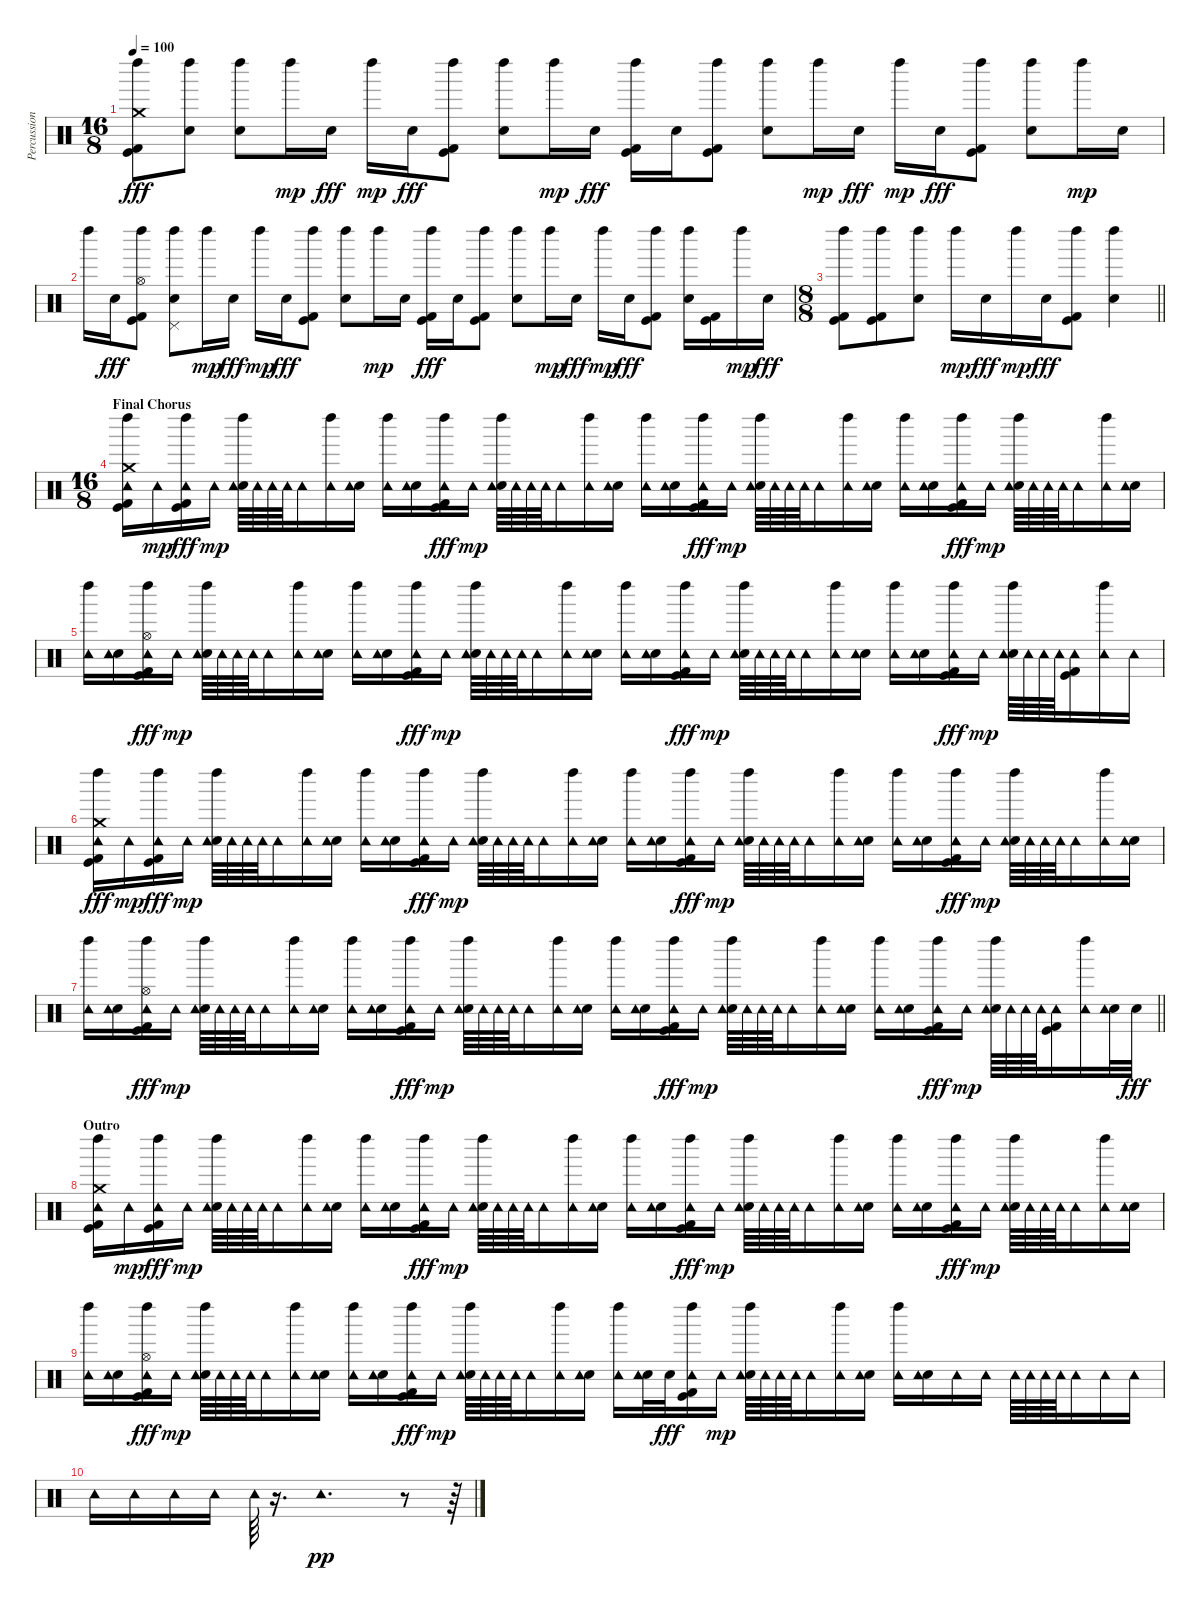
\track ("Percussion" "Percussion") {instrument percussion}
\staff {score}
\articulation defaults
\ts (16 8)
\tempo 100
\clef neutral
\ks c
("Crash medium (hit)" "Left Maraca (hit)" "Kick (hit)" "Kick (hit) 2").8{dy fff} ("Left Maraca (hit)" "Snare (hit) 2").8 ("Left Maraca (hit)" "Snare (hit) 2").8 "Left Maraca (hit)".16{dy mp} "Snare (hit) 2".16{dy fff} "Left Maraca (hit)".16{dy mp} "Snare (hit) 2".16{dy fff} ("Left Maraca (hit)" "Kick (hit)" "Kick (hit) 2").8 ("Left Maraca (hit)" "Snare (hit) 2").8 "Left Maraca (hit)".16{dy mp} "Snare (hit) 2".16{dy fff} ("Left Maraca (hit)" "Kick (hit)" "Kick (hit) 2").16 "Snare (hit) 2".16 ("Left Maraca (hit)" "Kick (hit)" "Kick (hit) 2").8 ("Left Maraca (hit)" "Snare (hit) 2").8 "Left Maraca (hit)".16{dy mp} "Snare (hit) 2".16{dy fff} "Left Maraca (hit)".16{dy mp} "Snare (hit) 2".16{dy fff} ("Left Maraca (hit)" "Kick (hit)" "Kick (hit) 2").8 ("Left Maraca (hit)" "Snare (hit) 2").8 "Left Maraca (hit)".16{dy mp} "Snare (hit) 2".16 |
"Left Maraca (hit)".16 "Snare (hit) 2".16{dy fff} ("Hi-Hat (open)" "Left Maraca (hit)" "Kick (hit)" "Kick (hit) 2").8 ("Pedal Hi-Hat (hit)" "Left Maraca (hit)" "Snare (hit) 2").8 "Left Maraca (hit)".16{dy mp} "Snare (hit) 2".16{dy fff} "Left Maraca (hit)".16{dy mp} "Snare (hit) 2".16{dy fff} ("Left Maraca (hit)" "Kick (hit)" "Kick (hit) 2").8 ("Left Maraca (hit)" "Snare (hit) 2").8 "Left Maraca (hit)".16{dy mp} "Snare (hit) 2".16 ("Left Maraca (hit)" "Kick (hit)" "Kick (hit) 2").16{dy fff} "Snare (hit) 2".16 ("Left Maraca (hit)" "Kick (hit)" "Kick (hit) 2").8 ("Left Maraca (hit)" "Snare (hit) 2").8 "Left Maraca (hit)".16{dy mp} "Snare (hit) 2".16{dy fff} "Left Maraca (hit)".16{dy mp} "Snare (hit) 2".16{dy fff} ("Left Maraca (hit)" "Kick (hit)" "Kick (hit) 2").8 ("Left Maraca (hit)" "Snare (hit) 2").16 ("Kick (hit)" "Kick (hit) 2").16 "Left Maraca (hit)".16{dy mp} "Snare (hit) 2".16{dy fff} |
\ts (8 8)
\barLineRight lightlight
("Left Maraca (hit)" "Kick (hit)" "Kick (hit) 2").8 ("Left Maraca (hit)" "Kick (hit)" "Kick (hit) 2").8 ("Left Maraca (hit)" "Snare (hit) 2").8 "Left Maraca (hit)".16{dy mp} "Snare (hit) 2".16{dy fff} "Left Maraca (hit)".16{dy mp} "Snare (hit) 2".16{dy fff} ("Left Maraca (hit)" "Kick (hit)" "Kick (hit) 2").8 ("Left Maraca (hit)" "Snare (hit) 2").4 |
\ts (16 8)
\section ("" "Final Chorus")
("Crash medium (hit)" "Left Maraca (hit)" "Tambourine (hit)" "Kick (hit)" "Kick (hit) 2").16 "Tambourine (hit)".16{dy mp} ("Left Maraca (hit)" "Tambourine (hit)" "Kick (hit)" "Kick (hit) 2").16{dy fff} "Tambourine (hit)".16{dy mp} ("Left Maraca (hit)" "Snare (hit) 2" "Tambourine (hit)").64 "Tambourine (hit)".64 "Tambourine (hit)".64 "Tambourine (hit)".64 "Tambourine (hit)".16 ("Left Maraca (hit)" "Tambourine (hit)").16 ("Snare (hit) 2" "Tambourine (hit)").16 ("Left Maraca (hit)" "Tambourine (hit)").16 ("Snare (hit) 2" "Tambourine (hit)").16 ("Left Maraca (hit)" "Tambourine (hit)" "Kick (hit)" "Kick (hit) 2").16{dy fff} "Tambourine (hit)".16{dy mp} ("Left Maraca (hit)" "Snare (hit) 2" "Tambourine (hit)").64 "Tambourine (hit)".64 "Tambourine (hit)".64 "Tambourine (hit)".64 "Tambourine (hit)".16 ("Left Maraca (hit)" "Tambourine (hit)").16 ("Snare (hit) 2" "Tambourine (hit)").16 ("Left Maraca (hit)" "Tambourine (hit)").16 ("Snare (hit) 2" "Tambourine (hit)").16 ("Left Maraca (hit)" "Tambourine (hit)" "Kick (hit)" "Kick (hit) 2").16{dy fff} "Tambourine (hit)".16{dy mp} ("Left Maraca (hit)" "Snare (hit) 2" "Tambourine (hit)").64 "Tambourine (hit)".64 "Tambourine (hit)".64 "Tambourine (hit)".64 "Tambourine (hit)".16 ("Left Maraca (hit)" "Tambourine (hit)").16 ("Snare (hit) 2" "Tambourine (hit)").16 ("Left Maraca (hit)" "Tambourine (hit)").16 ("Snare (hit) 2" "Tambourine (hit)").16 ("Left Maraca (hit)" "Tambourine (hit)" "Kick (hit)" "Kick (hit) 2").16{dy fff} "Tambourine (hit)".16{dy mp} ("Left Maraca (hit)" "Snare (hit) 2" "Tambourine (hit)").64 "Tambourine (hit)".64 "Tambourine (hit)".64 "Tambourine (hit)".64 "Tambourine (hit)".16 ("Left Maraca (hit)" "Tambourine (hit)").16 ("Snare (hit) 2" "Tambourine (hit)").16 |
("Left Maraca (hit)" "Tambourine (hit)").16 ("Snare (hit) 2" "Tambourine (hit)").16 ("Hi-Hat (open)" "Left Maraca (hit)" "Tambourine (hit)" "Kick (hit)" "Kick (hit) 2").16{dy fff} "Tambourine (hit)".16{dy mp} ("Left Maraca (hit)" "Snare (hit) 2" "Tambourine (hit)").64 "Tambourine (hit)".64 "Tambourine (hit)".64 "Tambourine (hit)".64 "Tambourine (hit)".16 ("Left Maraca (hit)" "Tambourine (hit)").16 ("Snare (hit) 2" "Tambourine (hit)").16 ("Left Maraca (hit)" "Tambourine (hit)").16 ("Snare (hit) 2" "Tambourine (hit)").16 ("Left Maraca (hit)" "Tambourine (hit)" "Kick (hit)" "Kick (hit) 2").16{dy fff} "Tambourine (hit)".16{dy mp} ("Left Maraca (hit)" "Snare (hit) 2" "Tambourine (hit)").64 "Tambourine (hit)".64 "Tambourine (hit)".64 "Tambourine (hit)".64 "Tambourine (hit)".16 ("Left Maraca (hit)" "Tambourine (hit)").16 ("Snare (hit) 2" "Tambourine (hit)").16 ("Left Maraca (hit)" "Tambourine (hit)").16 ("Snare (hit) 2" "Tambourine (hit)").16 ("Left Maraca (hit)" "Tambourine (hit)" "Kick (hit)" "Kick (hit) 2").16{dy fff} "Tambourine (hit)".16{dy mp} ("Left Maraca (hit)" "Snare (hit) 2" "Tambourine (hit)").64 "Tambourine (hit)".64 "Tambourine (hit)".64 "Tambourine (hit)".64 "Tambourine (hit)".16 ("Left Maraca (hit)" "Tambourine (hit)").16 ("Snare (hit) 2" "Tambourine (hit)").16 ("Left Maraca (hit)" "Tambourine (hit)").16 ("Snare (hit) 2" "Tambourine (hit)").16 ("Left Maraca (hit)" "Tambourine (hit)" "Kick (hit)" "Kick (hit) 2").16{dy fff} "Tambourine (hit)".16{dy mp} ("Left Maraca (hit)" "Snare (hit) 2" "Tambourine (hit)").64 "Tambourine (hit)".64 "Tambourine (hit)".64 "Tambourine (hit)".64 ("Tambourine (hit)" "Kick (hit)" "Kick (hit) 2").16 ("Left Maraca (hit)" "Tambourine (hit)").16 "Tambourine (hit)".16 |
("Crash medium (hit)" "Left Maraca (hit)" "Tambourine (hit)" "Kick (hit)" "Kick (hit) 2").16{dy fff} "Tambourine (hit)".16{dy mp} ("Left Maraca (hit)" "Tambourine (hit)" "Kick (hit)" "Kick (hit) 2").16{dy fff} "Tambourine (hit)".16{dy mp} ("Left Maraca (hit)" "Snare (hit) 2" "Tambourine (hit)").64 "Tambourine (hit)".64 "Tambourine (hit)".64 "Tambourine (hit)".64 "Tambourine (hit)".16 ("Left Maraca (hit)" "Tambourine (hit)").16 ("Snare (hit) 2" "Tambourine (hit)").16 ("Left Maraca (hit)" "Tambourine (hit)").16 ("Snare (hit) 2" "Tambourine (hit)").16 ("Left Maraca (hit)" "Tambourine (hit)" "Kick (hit)" "Kick (hit) 2").16{dy fff} "Tambourine (hit)".16{dy mp} ("Left Maraca (hit)" "Snare (hit) 2" "Tambourine (hit)").64 "Tambourine (hit)".64 "Tambourine (hit)".64 "Tambourine (hit)".64 "Tambourine (hit)".16 ("Left Maraca (hit)" "Tambourine (hit)").16 ("Snare (hit) 2" "Tambourine (hit)").16 ("Left Maraca (hit)" "Tambourine (hit)").16 ("Snare (hit) 2" "Tambourine (hit)").16 ("Left Maraca (hit)" "Tambourine (hit)" "Kick (hit)" "Kick (hit) 2").16{dy fff} "Tambourine (hit)".16{dy mp} ("Left Maraca (hit)" "Snare (hit) 2" "Tambourine (hit)").64 "Tambourine (hit)".64 "Tambourine (hit)".64 "Tambourine (hit)".64 "Tambourine (hit)".16 ("Left Maraca (hit)" "Tambourine (hit)").16 ("Snare (hit) 2" "Tambourine (hit)").16 ("Left Maraca (hit)" "Tambourine (hit)").16 ("Snare (hit) 2" "Tambourine (hit)").16 ("Left Maraca (hit)" "Tambourine (hit)" "Kick (hit)" "Kick (hit) 2").16{dy fff} "Tambourine (hit)".16{dy mp} ("Left Maraca (hit)" "Snare (hit) 2" "Tambourine (hit)").64 "Tambourine (hit)".64 "Tambourine (hit)".64 "Tambourine (hit)".64 "Tambourine (hit)".16 ("Left Maraca (hit)" "Tambourine (hit)").16 ("Snare (hit) 2" "Tambourine (hit)").16 |
\barLineRight lightlight
("Left Maraca (hit)" "Tambourine (hit)").16 ("Snare (hit) 2" "Tambourine (hit)").16 ("Hi-Hat (open)" "Left Maraca (hit)" "Tambourine (hit)" "Kick (hit)" "Kick (hit) 2").16{dy fff} "Tambourine (hit)".16{dy mp} ("Left Maraca (hit)" "Snare (hit) 2" "Tambourine (hit)").64 "Tambourine (hit)".64 "Tambourine (hit)".64 "Tambourine (hit)".64 "Tambourine (hit)".16 ("Left Maraca (hit)" "Tambourine (hit)").16 ("Snare (hit) 2" "Tambourine (hit)").16 ("Left Maraca (hit)" "Tambourine (hit)").16 ("Snare (hit) 2" "Tambourine (hit)").16 ("Left Maraca (hit)" "Tambourine (hit)" "Kick (hit)" "Kick (hit) 2").16{dy fff} "Tambourine (hit)".16{dy mp} ("Left Maraca (hit)" "Snare (hit) 2" "Tambourine (hit)").64 "Tambourine (hit)".64 "Tambourine (hit)".64 "Tambourine (hit)".64 "Tambourine (hit)".16 ("Left Maraca (hit)" "Tambourine (hit)").16 ("Snare (hit) 2" "Tambourine (hit)").16 ("Left Maraca (hit)" "Tambourine (hit)").16 ("Snare (hit) 2" "Tambourine (hit)").16 ("Left Maraca (hit)" "Tambourine (hit)" "Kick (hit)" "Kick (hit) 2").16{dy fff} "Tambourine (hit)".16{dy mp} ("Left Maraca (hit)" "Snare (hit) 2" "Tambourine (hit)").64 "Tambourine (hit)".64 "Tambourine (hit)".64 "Tambourine (hit)".64 "Tambourine (hit)".16 ("Left Maraca (hit)" "Tambourine (hit)").16 ("Snare (hit) 2" "Tambourine (hit)").16 ("Left Maraca (hit)" "Tambourine (hit)").16 ("Snare (hit) 2" "Tambourine (hit)").16 ("Left Maraca (hit)" "Tambourine (hit)" "Kick (hit)" "Kick (hit) 2").16{dy fff} "Tambourine (hit)".16{dy mp} ("Left Maraca (hit)" "Snare (hit) 2" "Tambourine (hit)").64 "Tambourine (hit)".64 "Tambourine (hit)".64 "Tambourine (hit)".64 ("Tambourine (hit)" "Kick (hit)" "Kick (hit) 2").16 ("Left Maraca (hit)" "Tambourine (hit)").16 ("Snare (hit) 2" "Tambourine (hit)").32 "Snare (hit) 2".32{dy fff} |
\section ("" "Outro")
("Crash medium (hit)" "Left Maraca (hit)" "Tambourine (hit)" "Kick (hit)" "Kick (hit) 2").16 "Tambourine (hit)".16{dy mp} ("Left Maraca (hit)" "Tambourine (hit)" "Kick (hit)" "Kick (hit) 2").16{dy fff} "Tambourine (hit)".16{dy mp} ("Left Maraca (hit)" "Snare (hit) 2" "Tambourine (hit)").64 "Tambourine (hit)".64 "Tambourine (hit)".64 "Tambourine (hit)".64 "Tambourine (hit)".16 ("Left Maraca (hit)" "Tambourine (hit)").16 ("Snare (hit) 2" "Tambourine (hit)").16 ("Left Maraca (hit)" "Tambourine (hit)").16 ("Snare (hit) 2" "Tambourine (hit)").16 ("Left Maraca (hit)" "Tambourine (hit)" "Kick (hit)" "Kick (hit) 2").16{dy fff} "Tambourine (hit)".16{dy mp} ("Left Maraca (hit)" "Snare (hit) 2" "Tambourine (hit)").64 "Tambourine (hit)".64 "Tambourine (hit)".64 "Tambourine (hit)".64 "Tambourine (hit)".16 ("Left Maraca (hit)" "Tambourine (hit)").16 ("Snare (hit) 2" "Tambourine (hit)").16 ("Left Maraca (hit)" "Tambourine (hit)").16 ("Snare (hit) 2" "Tambourine (hit)").16 ("Left Maraca (hit)" "Tambourine (hit)" "Kick (hit)" "Kick (hit) 2").16{dy fff} "Tambourine (hit)".16{dy mp} ("Left Maraca (hit)" "Snare (hit) 2" "Tambourine (hit)").64 "Tambourine (hit)".64 "Tambourine (hit)".64 "Tambourine (hit)".64 "Tambourine (hit)".16 ("Left Maraca (hit)" "Tambourine (hit)").16 ("Snare (hit) 2" "Tambourine (hit)").16 ("Left Maraca (hit)" "Tambourine (hit)").16 ("Snare (hit) 2" "Tambourine (hit)").16 ("Left Maraca (hit)" "Tambourine (hit)" "Kick (hit)" "Kick (hit) 2").16{dy fff} "Tambourine (hit)".16{dy mp} ("Left Maraca (hit)" "Snare (hit) 2" "Tambourine (hit)").64 "Tambourine (hit)".64 "Tambourine (hit)".64 "Tambourine (hit)".64 "Tambourine (hit)".16 ("Left Maraca (hit)" "Tambourine (hit)").16 ("Snare (hit) 2" "Tambourine (hit)").16 |
("Left Maraca (hit)" "Tambourine (hit)").16 ("Snare (hit) 2" "Tambourine (hit)").16 ("Hi-Hat (open)" "Left Maraca (hit)" "Tambourine (hit)" "Kick (hit)" "Kick (hit) 2").16{dy fff} "Tambourine (hit)".16{dy mp} ("Left Maraca (hit)" "Snare (hit) 2" "Tambourine (hit)").64 "Tambourine (hit)".64 "Tambourine (hit)".64 "Tambourine (hit)".64 "Tambourine (hit)".16 ("Left Maraca (hit)" "Tambourine (hit)").16 ("Snare (hit) 2" "Tambourine (hit)").16 ("Left Maraca (hit)" "Tambourine (hit)").16 ("Snare (hit) 2" "Tambourine (hit)").16 ("Left Maraca (hit)" "Tambourine (hit)" "Kick (hit)" "Kick (hit) 2").16{dy fff} "Tambourine (hit)".16{dy mp} ("Left Maraca (hit)" "Snare (hit) 2" "Tambourine (hit)").64 "Tambourine (hit)".64 "Tambourine (hit)".64 "Tambourine (hit)".64 "Tambourine (hit)".16 ("Left Maraca (hit)" "Tambourine (hit)").16 ("Snare (hit) 2" "Tambourine (hit)").16 ("Left Maraca (hit)" "Tambourine (hit)").16 ("Snare (hit) 2" "Tambourine (hit)").32 "Snare (hit) 2".32{dy fff} ("Left Maraca (hit)" "Tambourine (hit)" "Kick (hit)" "Kick (hit) 2").16 "Tambourine (hit)".16{dy mp} ("Left Maraca (hit)" "Snare (hit) 2" "Tambourine (hit)").64 "Tambourine (hit)".64 "Tambourine (hit)".64 "Tambourine (hit)".64 "Tambourine (hit)".16 ("Left Maraca (hit)" "Tambourine (hit)").16 ("Snare (hit) 2" "Tambourine (hit)").16 ("Left Maraca (hit)" "Tambourine (hit)").16 ("Snare (hit) 2" "Tambourine (hit)").16 "Tambourine (hit)".16 "Tambourine (hit)".16 "Tambourine (hit)".64 "Tambourine (hit)".64 "Tambourine (hit)".64 "Tambourine (hit)".64 "Tambourine (hit)".16 "Tambourine (hit)".16 "Tambourine (hit)".16 |
"Tambourine (hit)".16 "Tambourine (hit)".16 "Tambourine (hit)".16 "Tambourine (hit)".16 "Tambourine (hit)".64 r.16{d} "Tambourine (hit)".1{d dy pp} r.8 r.64
